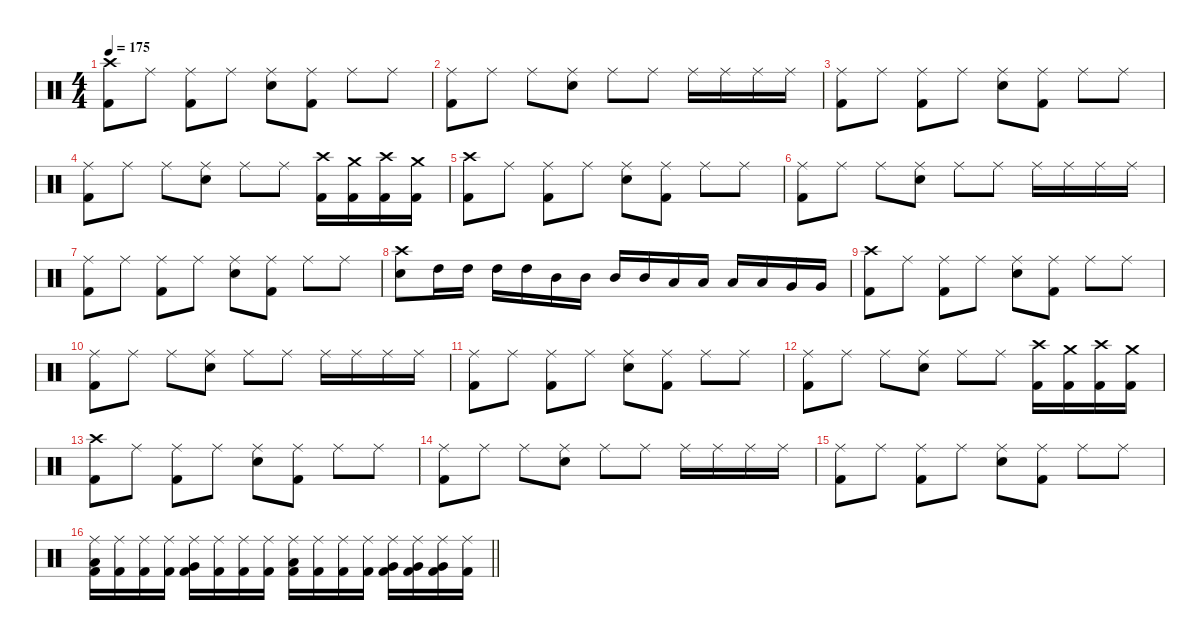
\defaultSystemsLayout 4
\hideDynamics
\bracketExtendMode nobrackets
\singleTrackTrackNamePolicy hidden
\multiTrackTrackNamePolicy hidden
\firstSystemTrackNameMode fullname
\firstSystemTrackNameOrientation horizontal
\otherSystemsTrackNameOrientation horizontal
\track ("Fredrik Andersson" "drm.") {instrument percussion}
\staff {score}
\articulation defaults
\ts (4 4)
\beaming (8 2 2 2 2)
\tempo 175
\clef neutral
\ks c
("Crash high (hit)" "Kick (hit) 2").8{dy f beam Down} "Ride (middle)".8{beam Down} ("Ride (middle)" "Kick (hit) 2").8{beam Down} "Ride (middle)".8{beam Down} ("Ride (middle)" "Snare (hit) 2").8{beam Down} ("Ride (middle)" "Kick (hit) 2").8{beam Down} "Ride (middle)".8{beam Down} "Ride (middle)".8{beam Down} |
("Ride (middle)" "Kick (hit) 2").8{beam Down} "Ride (middle)".8{beam Down} "Ride (middle)".8{beam Down} ("Ride (middle)" "Snare (hit) 2").8{beam Down} "Ride (middle)".8{beam Down} "Ride (middle)".8{beam Down} "Ride (middle)".16{beam Down} "Ride (middle)".16{beam Down} "Ride (middle)".16{beam Down} "Ride (middle)".16{beam Down} |
("Ride (middle)" "Kick (hit) 2").8{beam Down} "Ride (middle)".8{beam Down} ("Ride (middle)" "Kick (hit) 2").8{beam Down} "Ride (middle)".8{beam Down} ("Ride (middle)" "Snare (hit) 2").8{beam Down} ("Ride (middle)" "Kick (hit) 2").8{beam Down} "Ride (middle)".8{beam Down} "Ride (middle)".8{beam Down} |
("Ride (middle)" "Kick (hit) 2").8{beam Down} "Ride (middle)".8{beam Down} "Ride (middle)".8{beam Down} ("Ride (middle)" "Snare (hit) 2").8{beam Down} "Ride (middle)".8{beam Down} "Ride (middle)".8{beam Down} ("Crash high (hit)" "Kick (hit) 2").16{beam Down} ("Crash medium (hit)" "Kick (hit) 2").16{beam Down} ("Crash high (hit)" "Kick (hit) 2").16{beam Down} ("Crash medium (hit)" "Kick (hit) 2").16{beam Down} |
("Crash high (hit)" "Kick (hit) 2").8{beam Down} "Ride (middle)".8{beam Down} ("Ride (middle)" "Kick (hit) 2").8{beam Down} "Ride (middle)".8{beam Down} ("Ride (middle)" "Snare (hit) 2").8{beam Down} ("Ride (middle)" "Kick (hit) 2").8{beam Down} "Ride (middle)".8{beam Down} "Ride (middle)".8{beam Down} |
("Ride (middle)" "Kick (hit) 2").8{beam Down} "Ride (middle)".8{beam Down} "Ride (middle)".8{beam Down} ("Ride (middle)" "Snare (hit) 2").8{beam Down} "Ride (middle)".8{beam Down} "Ride (middle)".8{beam Down} "Ride (middle)".16{beam Down} "Ride (middle)".16{beam Down} "Ride (middle)".16{beam Down} "Ride (middle)".16{beam Down} |
("Ride (middle)" "Kick (hit) 2").8{beam Down} "Ride (middle)".8{beam Down} ("Ride (middle)" "Kick (hit) 2").8{beam Down} "Ride (middle)".8{beam Down} ("Ride (middle)" "Snare (hit) 2").8{beam Down} ("Ride (middle)" "Kick (hit) 2").8{beam Down} "Ride (middle)".8{beam Down} "Ride (middle)".8{beam Down} |
("Crash high (hit)" "Snare (hit) 2").8{beam Down} "High Tom (hit)".16{beam Down} "High Tom (hit)".16{beam Down} "High Tom (hit)".16{beam Down} "High Tom (hit)".16{beam Down} "Mid Tom (hit)".16{beam Down} "Mid Tom (hit)".16{beam Down} "Mid Tom (hit)".16{beam Up} "Mid Tom (hit)".16{beam Up} "Low Tom (hit)".16{beam Up} "Low Tom (hit)".16{beam Up} "Low Tom (hit)".16{beam Up} "Low Tom (hit)".16{beam Up} "Very Low Tom (hit)".16{beam Up} "Very Low Tom (hit)".16{beam Up} |
("Crash high (hit)" "Kick (hit) 2").8{beam Down} "Ride (middle)".8{beam Down} ("Ride (middle)" "Kick (hit) 2").8{beam Down} "Ride (middle)".8{beam Down} ("Ride (middle)" "Snare (hit) 2").8{beam Down} ("Ride (middle)" "Kick (hit) 2").8{beam Down} "Ride (middle)".8{beam Down} "Ride (middle)".8{beam Down} |
("Ride (middle)" "Kick (hit) 2").8{beam Down} "Ride (middle)".8{beam Down} "Ride (middle)".8{beam Down} ("Ride (middle)" "Snare (hit) 2").8{beam Down} "Ride (middle)".8{beam Down} "Ride (middle)".8{beam Down} "Ride (middle)".16{beam Down} "Ride (middle)".16{beam Down} "Ride (middle)".16{beam Down} "Ride (middle)".16{beam Down} |
("Ride (middle)" "Kick (hit) 2").8{beam Down} "Ride (middle)".8{beam Down} ("Ride (middle)" "Kick (hit) 2").8{beam Down} "Ride (middle)".8{beam Down} ("Ride (middle)" "Snare (hit) 2").8{beam Down} ("Ride (middle)" "Kick (hit) 2").8{beam Down} "Ride (middle)".8{beam Down} "Ride (middle)".8{beam Down} |
("Ride (middle)" "Kick (hit) 2").8{beam Down} "Ride (middle)".8{beam Down} "Ride (middle)".8{beam Down} ("Ride (middle)" "Snare (hit) 2").8{beam Down} "Ride (middle)".8{beam Down} "Ride (middle)".8{beam Down} ("Crash high (hit)" "Kick (hit) 2").16{beam Down} ("Crash medium (hit)" "Kick (hit) 2").16{beam Down} ("Crash high (hit)" "Kick (hit) 2").16{beam Down} ("Crash medium (hit)" "Kick (hit) 2").16{beam Down} |
("Crash high (hit)" "Kick (hit) 2").8{beam Down} "Ride (middle)".8{beam Down} ("Ride (middle)" "Kick (hit) 2").8{beam Down} "Ride (middle)".8{beam Down} ("Ride (middle)" "Snare (hit) 2").8{beam Down} ("Ride (middle)" "Kick (hit) 2").8{beam Down} "Ride (middle)".8{beam Down} "Ride (middle)".8{beam Down} |
("Ride (middle)" "Kick (hit) 2").8{beam Down} "Ride (middle)".8{beam Down} "Ride (middle)".8{beam Down} ("Ride (middle)" "Snare (hit) 2").8{beam Down} "Ride (middle)".8{beam Down} "Ride (middle)".8{beam Down} "Ride (middle)".16{beam Down} "Ride (middle)".16{beam Down} "Ride (middle)".16{beam Down} "Ride (middle)".16{beam Down} |
("Ride (middle)" "Kick (hit) 2").8{beam Down} "Ride (middle)".8{beam Down} ("Ride (middle)" "Kick (hit) 2").8{beam Down} "Ride (middle)".8{beam Down} ("Ride (middle)" "Snare (hit) 2").8{beam Down} ("Ride (middle)" "Kick (hit) 2").8{beam Down} "Ride (middle)".8{beam Down} "Ride (middle)".8{beam Down} |
\barLineRight lightlight
("Ride (middle)" "Low Floor Tom (hit)" "Kick (hit) 2").16{beam Down} ("Ride (middle)" "Kick (hit) 2").16{beam Down} ("Ride (middle)" "Kick (hit) 2").16{beam Down} ("Ride (middle)" "Kick (hit) 2").16{beam Down} ("Ride (middle)" "Very Low Tom (hit)" "Kick (hit) 2").16{beam Down} ("Ride (middle)" "Kick (hit) 2").16{beam Down} ("Ride (middle)" "Kick (hit) 2").16{beam Down} ("Ride (middle)" "Kick (hit) 2").16{beam Down} ("Ride (middle)" "Low Floor Tom (hit)" "Kick (hit) 2").16{beam Down} ("Ride (middle)" "Kick (hit) 2").16{beam Down} ("Ride (middle)" "Kick (hit) 2").16{beam Down} ("Ride (middle)" "Kick (hit) 2").16{beam Down} ("Ride (middle)" "Very Low Tom (hit)" "Kick (hit) 2").16{beam Down} ("Ride (middle)" "Very Low Tom (hit)" "Kick (hit) 2").16{beam Down} ("Ride (middle)" "Very Low Tom (hit)" "Kick (hit) 2").16{beam Down} ("Ride (middle)" "Kick (hit) 2").16{beam Down}
